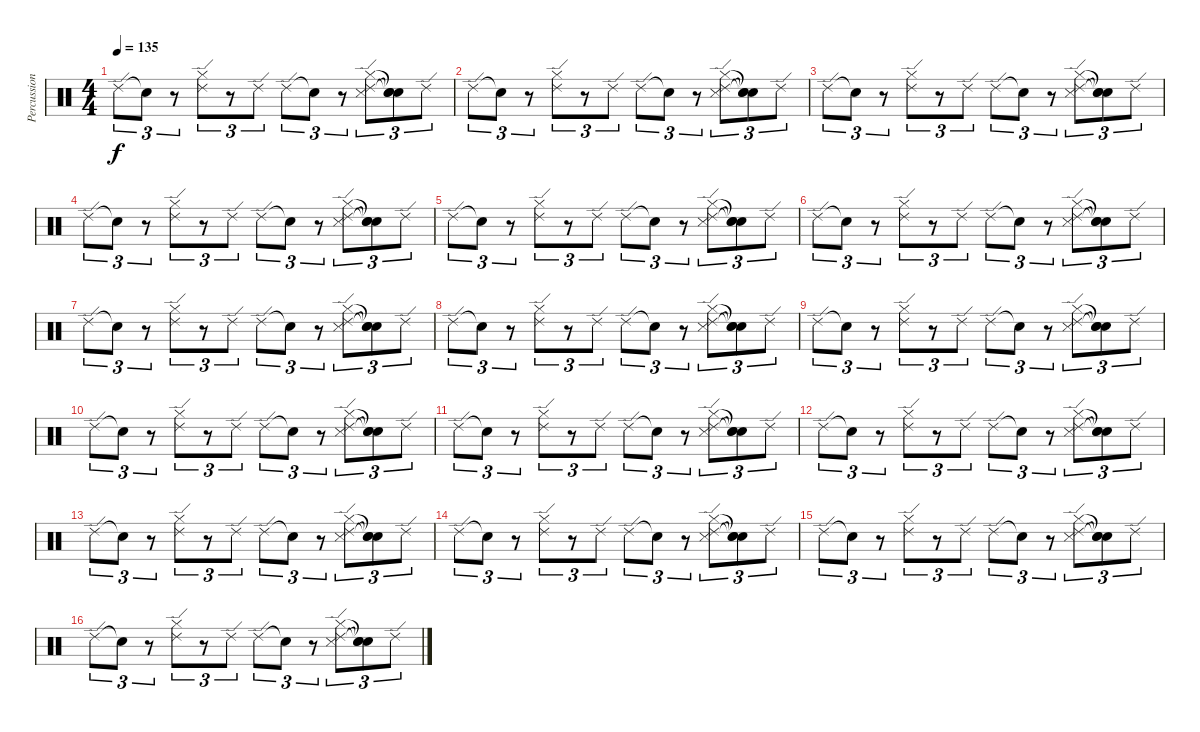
\track ("Percussion" "Percussion") {instrument percussion}
\staff {score}
\articulation defaults
\ts (4 4)
\tempo 135
\clef neutral
\ks c "Ride (edge) 2".8{tu (3 2) dy f} "Snare (hit)"{t}.8{tu (3 2)}
r.8{tu (3 2)} ("Ride (edge) 2" "Hi-Hat (closed)").8{tu (3 2)} r.8{tu (3 2)} "Ride (edge) 2".8{tu (3 2)} "Ride (edge) 2".8{tu (3 2)} "Snare (hit)"{t}.8{tu (3 2)} r.8{tu (3 2)} ("Ride (edge) 2" "Snare (side stick) 3" "Hi-Hat (closed)").8{tu (3 2)} ("Snare (hit)"{t} "Snare (hit)"{t} "Snare (hit)"{t}).8{tu (3 2)} "Ride (edge) 2".8{tu (3 2)} |
"Ride (edge) 2".8{tu (3 2)} "Snare (hit)"{t}.8{tu (3 2)} r.8{tu (3 2)} ("Ride (edge) 2" "Hi-Hat (closed)").8{tu (3 2)} r.8{tu (3 2)} "Ride (edge) 2".8{tu (3 2)} "Ride (edge) 2".8{tu (3 2)} "Snare (hit)"{t}.8{tu (3 2)} r.8{tu (3 2)} ("Ride (edge) 2" "Snare (side stick) 3" "Hi-Hat (closed)").8{tu (3 2)} ("Snare (hit)"{t} "Snare (hit)"{t} "Snare (hit)"{t}).8{tu (3 2)} "Ride (edge) 2".8{tu (3 2)} |
"Ride (edge) 2".8{tu (3 2)} "Snare (hit)"{t}.8{tu (3 2)} r.8{tu (3 2)} ("Ride (edge) 2" "Hi-Hat (closed)").8{tu (3 2)} r.8{tu (3 2)} "Ride (edge) 2".8{tu (3 2)} "Ride (edge) 2".8{tu (3 2)} "Snare (hit)"{t}.8{tu (3 2)} r.8{tu (3 2)} ("Ride (edge) 2" "Snare (side stick) 3" "Hi-Hat (closed)").8{tu (3 2)} ("Snare (hit)"{t} "Snare (hit)"{t} "Snare (hit)"{t}).8{tu (3 2)} "Ride (edge) 2".8{tu (3 2)} |
"Ride (edge) 2".8{tu (3 2)} "Snare (hit)"{t}.8{tu (3 2)} r.8{tu (3 2)} ("Ride (edge) 2" "Hi-Hat (closed)").8{tu (3 2)} r.8{tu (3 2)} "Ride (edge) 2".8{tu (3 2)} "Ride (edge) 2".8{tu (3 2)} "Snare (hit)"{t}.8{tu (3 2)} r.8{tu (3 2)} ("Ride (edge) 2" "Snare (side stick) 3" "Hi-Hat (closed)").8{tu (3 2)} ("Snare (hit)"{t} "Snare (hit)"{t} "Snare (hit)"{t}).8{tu (3 2)} "Ride (edge) 2".8{tu (3 2)} |
"Ride (edge) 2".8{tu (3 2)} "Snare (hit)"{t}.8{tu (3 2)} r.8{tu (3 2)} ("Ride (edge) 2" "Hi-Hat (closed)").8{tu (3 2)} r.8{tu (3 2)} "Ride (edge) 2".8{tu (3 2)} "Ride (edge) 2".8{tu (3 2)} "Snare (hit)"{t}.8{tu (3 2)} r.8{tu (3 2)} ("Ride (edge) 2" "Snare (side stick) 3" "Hi-Hat (closed)").8{tu (3 2)} ("Snare (hit)"{t} "Snare (hit)"{t} "Snare (hit)"{t}).8{tu (3 2)} "Ride (edge) 2".8{tu (3 2)} |
"Ride (edge) 2".8{tu (3 2)} "Snare (hit)"{t}.8{tu (3 2)} r.8{tu (3 2)} ("Ride (edge) 2" "Hi-Hat (closed)").8{tu (3 2)} r.8{tu (3 2)} "Ride (edge) 2".8{tu (3 2)} "Ride (edge) 2".8{tu (3 2)} "Snare (hit)"{t}.8{tu (3 2)} r.8{tu (3 2)} ("Ride (edge) 2" "Snare (side stick) 3" "Hi-Hat (closed)").8{tu (3 2)} ("Snare (hit)"{t} "Snare (hit)"{t} "Snare (hit)"{t}).8{tu (3 2)} "Ride (edge) 2".8{tu (3 2)} |
"Ride (edge) 2".8{tu (3 2)} "Snare (hit)"{t}.8{tu (3 2)} r.8{tu (3 2)} ("Ride (edge) 2" "Hi-Hat (closed)").8{tu (3 2)} r.8{tu (3 2)} "Ride (edge) 2".8{tu (3 2)} "Ride (edge) 2".8{tu (3 2)} "Snare (hit)"{t}.8{tu (3 2)} r.8{tu (3 2)} ("Ride (edge) 2" "Snare (side stick) 3" "Hi-Hat (closed)").8{tu (3 2)} ("Snare (hit)"{t} "Snare (hit)"{t} "Snare (hit)"{t}).8{tu (3 2)} "Ride (edge) 2".8{tu (3 2)} |
"Ride (edge) 2".8{tu (3 2)} "Snare (hit)"{t}.8{tu (3 2)} r.8{tu (3 2)} ("Ride (edge) 2" "Hi-Hat (closed)").8{tu (3 2)} r.8{tu (3 2)} "Ride (edge) 2".8{tu (3 2)} "Ride (edge) 2".8{tu (3 2)} "Snare (hit)"{t}.8{tu (3 2)} r.8{tu (3 2)} ("Ride (edge) 2" "Snare (side stick) 3" "Hi-Hat (closed)").8{tu (3 2)} ("Snare (hit)"{t} "Snare (hit)"{t} "Snare (hit)"{t}).8{tu (3 2)} "Ride (edge) 2".8{tu (3 2)} |
"Ride (edge) 2".8{tu (3 2)} "Snare (hit)"{t}.8{tu (3 2)} r.8{tu (3 2)} ("Ride (edge) 2" "Hi-Hat (closed)").8{tu (3 2)} r.8{tu (3 2)} "Ride (edge) 2".8{tu (3 2)} "Ride (edge) 2".8{tu (3 2)} "Snare (hit)"{t}.8{tu (3 2)} r.8{tu (3 2)} ("Ride (edge) 2" "Snare (side stick) 3" "Hi-Hat (closed)").8{tu (3 2)} ("Snare (hit)"{t} "Snare (hit)"{t} "Snare (hit)"{t}).8{tu (3 2)} "Ride (edge) 2".8{tu (3 2)} |
"Ride (edge) 2".8{tu (3 2)} "Snare (hit)"{t}.8{tu (3 2)} r.8{tu (3 2)} ("Ride (edge) 2" "Hi-Hat (closed)").8{tu (3 2)} r.8{tu (3 2)} "Ride (edge) 2".8{tu (3 2)} "Ride (edge) 2".8{tu (3 2)} "Snare (hit)"{t}.8{tu (3 2)} r.8{tu (3 2)} ("Ride (edge) 2" "Snare (side stick) 3" "Hi-Hat (closed)").8{tu (3 2)} ("Snare (hit)"{t} "Snare (hit)"{t} "Snare (hit)"{t}).8{tu (3 2)} "Ride (edge) 2".8{tu (3 2)} |
"Ride (edge) 2".8{tu (3 2)} "Snare (hit)"{t}.8{tu (3 2)} r.8{tu (3 2)} ("Ride (edge) 2" "Hi-Hat (closed)").8{tu (3 2)} r.8{tu (3 2)} "Ride (edge) 2".8{tu (3 2)} "Ride (edge) 2".8{tu (3 2)} "Snare (hit)"{t}.8{tu (3 2)} r.8{tu (3 2)} ("Ride (edge) 2" "Snare (side stick) 3" "Hi-Hat (closed)").8{tu (3 2)} ("Snare (hit)"{t} "Snare (hit)"{t} "Snare (hit)"{t}).8{tu (3 2)} "Ride (edge) 2".8{tu (3 2)} |
"Ride (edge) 2".8{tu (3 2)} "Snare (hit)"{t}.8{tu (3 2)} r.8{tu (3 2)} ("Ride (edge) 2" "Hi-Hat (closed)").8{tu (3 2)} r.8{tu (3 2)} "Ride (edge) 2".8{tu (3 2)} "Ride (edge) 2".8{tu (3 2)} "Snare (hit)"{t}.8{tu (3 2)} r.8{tu (3 2)} ("Ride (edge) 2" "Snare (side stick) 3" "Hi-Hat (closed)").8{tu (3 2)} ("Snare (hit)"{t} "Snare (hit)"{t} "Snare (hit)"{t}).8{tu (3 2)} "Ride (edge) 2".8{tu (3 2)} |
"Ride (edge) 2".8{tu (3 2)} "Snare (hit)"{t}.8{tu (3 2)} r.8{tu (3 2)} ("Ride (edge) 2" "Hi-Hat (closed)").8{tu (3 2)} r.8{tu (3 2)} "Ride (edge) 2".8{tu (3 2)} "Ride (edge) 2".8{tu (3 2)} "Snare (hit)"{t}.8{tu (3 2)} r.8{tu (3 2)} ("Ride (edge) 2" "Snare (side stick) 3" "Hi-Hat (closed)").8{tu (3 2)} ("Snare (hit)"{t} "Snare (hit)"{t} "Snare (hit)"{t}).8{tu (3 2)} "Ride (edge) 2".8{tu (3 2)} |
"Ride (edge) 2".8{tu (3 2)} "Snare (hit)"{t}.8{tu (3 2)} r.8{tu (3 2)} ("Ride (edge) 2" "Hi-Hat (closed)").8{tu (3 2)} r.8{tu (3 2)} "Ride (edge) 2".8{tu (3 2)} "Ride (edge) 2".8{tu (3 2)} "Snare (hit)"{t}.8{tu (3 2)} r.8{tu (3 2)} ("Ride (edge) 2" "Snare (side stick) 3" "Hi-Hat (closed)").8{tu (3 2)} ("Snare (hit)"{t} "Snare (hit)"{t} "Snare (hit)"{t}).8{tu (3 2)} "Ride (edge) 2".8{tu (3 2)} |
"Ride (edge) 2".8{tu (3 2)} "Snare (hit)"{t}.8{tu (3 2)} r.8{tu (3 2)} ("Ride (edge) 2" "Hi-Hat (closed)").8{tu (3 2)} r.8{tu (3 2)} "Ride (edge) 2".8{tu (3 2)} "Ride (edge) 2".8{tu (3 2)} "Snare (hit)"{t}.8{tu (3 2)} r.8{tu (3 2)} ("Ride (edge) 2" "Snare (side stick) 3" "Hi-Hat (closed)").8{tu (3 2)} ("Snare (hit)"{t} "Snare (hit)"{t} "Snare (hit)"{t}).8{tu (3 2)} "Ride (edge) 2".8{tu (3 2)} |
"Ride (edge) 2".8{tu (3 2)} "Snare (hit)"{t}.8{tu (3 2)} r.8{tu (3 2)} ("Ride (edge) 2" "Hi-Hat (closed)").8{tu (3 2)} r.8{tu (3 2)} "Ride (edge) 2".8{tu (3 2)} "Ride (edge) 2".8{tu (3 2)} "Snare (hit)"{t}.8{tu (3 2)} r.8{tu (3 2)} ("Ride (edge) 2" "Snare (side stick) 3" "Hi-Hat (closed)").8{tu (3 2)} ("Snare (hit)"{t} "Snare (hit)"{t} "Snare (hit)"{t}).8{tu (3 2)} "Ride (edge) 2".8{tu (3 2)}
